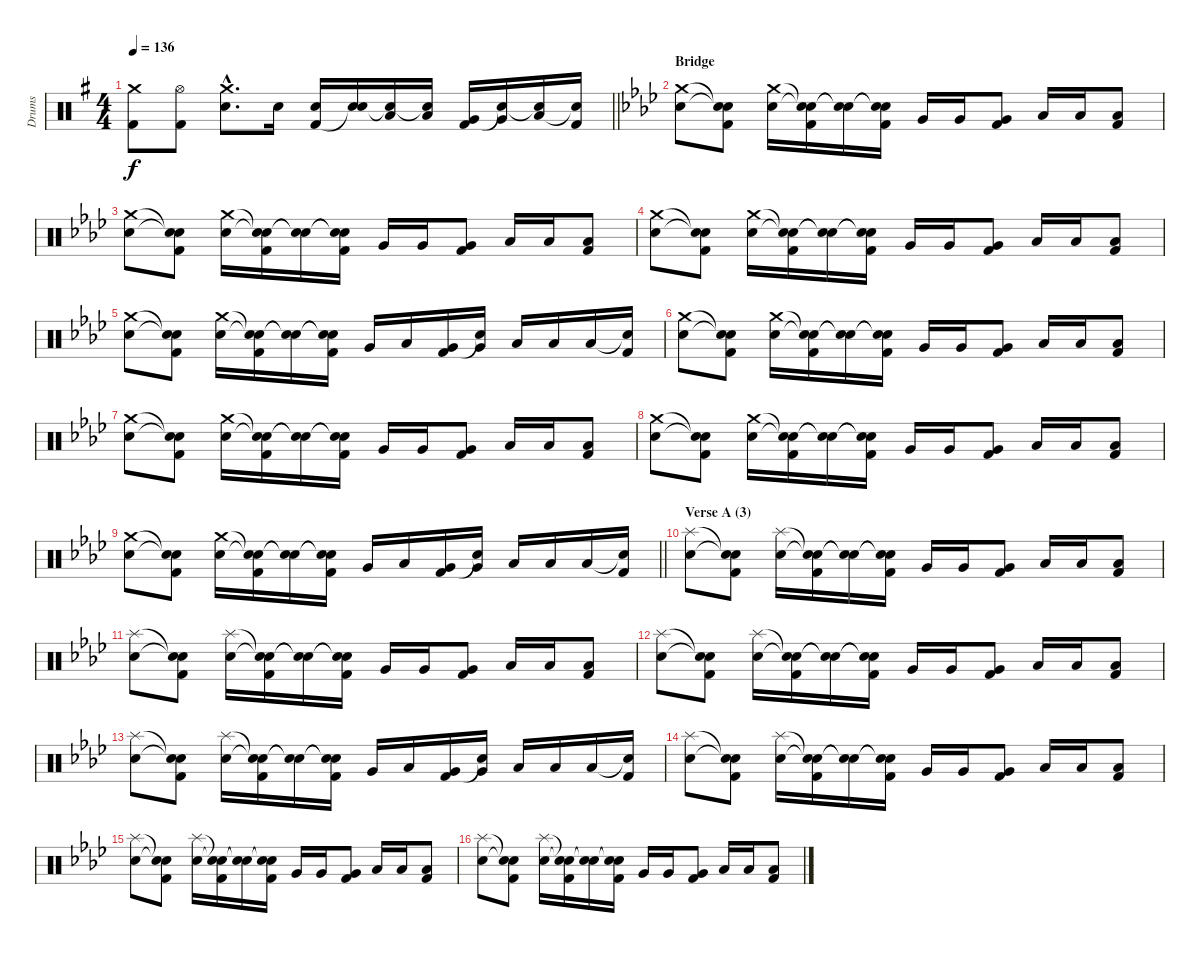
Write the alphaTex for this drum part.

\track ("Drums" "Drums") {instrument percussion}
\staff {score}
\articulation defaults
\ts (4 4)
\tempo 136
\clef neutral
\barLineRight lightlight
\ks g
("Crash medium (hit)" "Kick (hit) 2").8{dy f} ("Hi-Hat (open)" "Kick (hit) 2").8 ("Crash medium (hit)"{hac} "Electric Snare (hit)"{hac}).8{d} "Electric Snare (hit)".16 ("Electric Snare (hit)" "Kick (hit) 2").16 ("Electric Snare (hit)" "Snare (hit)"{t}).16 ("Low Tom (hit)" "Snare (hit)"{t}).16 ("Low Tom (hit)" "Snare (hit)"{t}).16 ("Very Low Tom (hit)" "Kick (hit) 2").16 ("Very Low Tom (hit)" "Snare (hit)"{t}).16 ("Low Floor Tom (hit)" "Snare (hit)"{t}).16 ("Snare (hit)"{t} "Kick (hit) 2").16 |
\section ("" "Bridge")
\ks ab
("Crash medium (hit)" "Electric Snare (hit)").8 ("Snare (hit)"{t} "Snare (hit)"{t} "Kick (hit) 2").8 ("Crash medium (hit)" "Electric Snare (hit)").16 ("Snare (hit)"{t} "Snare (hit)"{t} "Kick (hit) 2").16 ("Snare (hit)"{t} "Snare (hit)"{t}).16 ("Snare (hit)"{t} "Snare (hit)"{t} "Kick (hit) 2").16 "Very Low Tom (hit)".16 "Very Low Tom (hit)".16 ("Very Low Tom (hit)" "Kick (hit) 2").8 "Low Floor Tom (hit)".16 "Low Floor Tom (hit)".16 ("Low Floor Tom (hit)" "Kick (hit) 2").8 |
("Crash medium (hit)" "Electric Snare (hit)").8 ("Snare (hit)"{t} "Snare (hit)"{t} "Kick (hit) 2").8 ("Crash medium (hit)" "Electric Snare (hit)").16 ("Snare (hit)"{t} "Snare (hit)"{t} "Kick (hit) 2").16 ("Snare (hit)"{t} "Snare (hit)"{t}).16 ("Snare (hit)"{t} "Snare (hit)"{t} "Kick (hit) 2").16 "Very Low Tom (hit)".16 "Very Low Tom (hit)".16 ("Very Low Tom (hit)" "Kick (hit) 2").8 "Low Floor Tom (hit)".16 "Low Floor Tom (hit)".16 ("Low Floor Tom (hit)" "Kick (hit) 2").8 |
("Crash medium (hit)" "Electric Snare (hit)").8 ("Snare (hit)"{t} "Snare (hit)"{t} "Kick (hit) 2").8 ("Crash medium (hit)" "Electric Snare (hit)").16 ("Snare (hit)"{t} "Snare (hit)"{t} "Kick (hit) 2").16 ("Snare (hit)"{t} "Snare (hit)"{t}).16 ("Snare (hit)"{t} "Snare (hit)"{t} "Kick (hit) 2").16 "Very Low Tom (hit)".16 "Very Low Tom (hit)".16 ("Very Low Tom (hit)" "Kick (hit) 2").8 "Low Floor Tom (hit)".16 "Low Floor Tom (hit)".16 ("Low Floor Tom (hit)" "Kick (hit) 2").8 |
("Crash medium (hit)" "Electric Snare (hit)").8 ("Snare (hit)"{t} "Snare (hit)"{t} "Kick (hit) 2").8 ("Crash medium (hit)" "Electric Snare (hit)").16 ("Snare (hit)"{t} "Snare (hit)"{t} "Kick (hit) 2").16 ("Snare (hit)"{t} "Snare (hit)"{t}).16 ("Snare (hit)"{t} "Snare (hit)"{t} "Kick (hit) 2").16 "Very Low Tom (hit)".16 "Low Tom (hit)".16 ("Very Low Tom (hit)" "Kick (hit) 2").16 ("Very Low Tom (hit)" "Snare (hit)"{t}).16 "Low Floor Tom (hit)".16 "Low Floor Tom (hit)".16 "Low Floor Tom (hit)".16 ("Snare (hit)"{t} "Kick (hit) 2").16 |
("Crash medium (hit)" "Electric Snare (hit)").8 ("Snare (hit)"{t} "Snare (hit)"{t} "Kick (hit) 2").8 ("Crash medium (hit)" "Electric Snare (hit)").16 ("Snare (hit)"{t} "Snare (hit)"{t} "Kick (hit) 2").16 ("Snare (hit)"{t} "Snare (hit)"{t}).16 ("Snare (hit)"{t} "Snare (hit)"{t} "Kick (hit) 2").16 "Very Low Tom (hit)".16 "Very Low Tom (hit)".16 ("Very Low Tom (hit)" "Kick (hit) 2").8 "Low Floor Tom (hit)".16 "Low Floor Tom (hit)".16 ("Low Floor Tom (hit)" "Kick (hit) 2").8 |
("Crash medium (hit)" "Electric Snare (hit)").8 ("Snare (hit)"{t} "Snare (hit)"{t} "Kick (hit) 2").8 ("Crash medium (hit)" "Electric Snare (hit)").16 ("Snare (hit)"{t} "Snare (hit)"{t} "Kick (hit) 2").16 ("Snare (hit)"{t} "Snare (hit)"{t}).16 ("Snare (hit)"{t} "Snare (hit)"{t} "Kick (hit) 2").16 "Very Low Tom (hit)".16 "Very Low Tom (hit)".16 ("Very Low Tom (hit)" "Kick (hit) 2").8 "Low Floor Tom (hit)".16 "Low Floor Tom (hit)".16 ("Low Floor Tom (hit)" "Kick (hit) 2").8 |
("Crash medium (hit)" "Electric Snare (hit)").8 ("Snare (hit)"{t} "Snare (hit)"{t} "Kick (hit) 2").8 ("Crash medium (hit)" "Electric Snare (hit)").16 ("Snare (hit)"{t} "Snare (hit)"{t} "Kick (hit) 2").16 ("Snare (hit)"{t} "Snare (hit)"{t}).16 ("Snare (hit)"{t} "Snare (hit)"{t} "Kick (hit) 2").16 "Very Low Tom (hit)".16 "Very Low Tom (hit)".16 ("Very Low Tom (hit)" "Kick (hit) 2").8 "Low Floor Tom (hit)".16 "Low Floor Tom (hit)".16 ("Low Floor Tom (hit)" "Kick (hit) 2").8 |
\barLineRight lightlight
("Crash medium (hit)" "Electric Snare (hit)").8 ("Snare (hit)"{t} "Snare (hit)"{t} "Kick (hit) 2").8 ("Crash medium (hit)" "Electric Snare (hit)").16 ("Snare (hit)"{t} "Snare (hit)"{t} "Kick (hit) 2").16 ("Snare (hit)"{t} "Snare (hit)"{t}).16 ("Snare (hit)"{t} "Snare (hit)"{t} "Kick (hit) 2").16 "Very Low Tom (hit)".16 "Low Tom (hit)".16 ("Very Low Tom (hit)" "Kick (hit) 2").16 ("Very Low Tom (hit)" "Snare (hit)"{t}).16 "Low Floor Tom (hit)".16 "Low Floor Tom (hit)".16 "Low Floor Tom (hit)".16 ("Snare (hit)"{t} "Kick (hit) 2").16 |
\section ("" "Verse A (3)")
("Splash (hit)" "Electric Snare (hit)").8 ("Snare (hit)"{t} "Snare (hit)"{t} "Kick (hit) 2").8 ("Splash (hit)" "Electric Snare (hit)").16 ("Snare (hit)"{t} "Snare (hit)"{t} "Kick (hit) 2").16 ("Snare (hit)"{t} "Snare (hit)"{t}).16 ("Snare (hit)"{t} "Snare (hit)"{t} "Kick (hit) 2").16 "Very Low Tom (hit)".16 "Very Low Tom (hit)".16 ("Very Low Tom (hit)" "Kick (hit) 2").8 "Low Floor Tom (hit)".16 "Low Floor Tom (hit)".16 ("Low Floor Tom (hit)" "Kick (hit) 2").8 |
("Splash (hit)" "Electric Snare (hit)").8 ("Snare (hit)"{t} "Snare (hit)"{t} "Kick (hit) 2").8 ("Splash (hit)" "Electric Snare (hit)").16 ("Snare (hit)"{t} "Snare (hit)"{t} "Kick (hit) 2").16 ("Snare (hit)"{t} "Snare (hit)"{t}).16 ("Snare (hit)"{t} "Snare (hit)"{t} "Kick (hit) 2").16 "Very Low Tom (hit)".16 "Very Low Tom (hit)".16 ("Very Low Tom (hit)" "Kick (hit) 2").8 "Low Floor Tom (hit)".16 "Low Floor Tom (hit)".16 ("Low Floor Tom (hit)" "Kick (hit) 2").8 |
("Splash (hit)" "Electric Snare (hit)").8 ("Snare (hit)"{t} "Snare (hit)"{t} "Kick (hit) 2").8 ("Splash (hit)" "Electric Snare (hit)").16 ("Snare (hit)"{t} "Snare (hit)"{t} "Kick (hit) 2").16 ("Snare (hit)"{t} "Snare (hit)"{t}).16 ("Snare (hit)"{t} "Snare (hit)"{t} "Kick (hit) 2").16 "Very Low Tom (hit)".16 "Very Low Tom (hit)".16 ("Very Low Tom (hit)" "Kick (hit) 2").8 "Low Floor Tom (hit)".16 "Low Floor Tom (hit)".16 ("Low Floor Tom (hit)" "Kick (hit) 2").8 |
("Splash (hit)" "Electric Snare (hit)").8 ("Snare (hit)"{t} "Snare (hit)"{t} "Kick (hit) 2").8 ("Splash (hit)" "Electric Snare (hit)").16 ("Snare (hit)"{t} "Snare (hit)"{t} "Kick (hit) 2").16 ("Snare (hit)"{t} "Snare (hit)"{t}).16 ("Snare (hit)"{t} "Snare (hit)"{t} "Kick (hit) 2").16 "Very Low Tom (hit)".16 "Low Tom (hit)".16 ("Very Low Tom (hit)" "Kick (hit) 2").16 ("Very Low Tom (hit)" "Snare (hit)"{t}).16 "Low Floor Tom (hit)".16 "Low Floor Tom (hit)".16 "Low Floor Tom (hit)".16 ("Snare (hit)"{t} "Kick (hit) 2").16 |
("Splash (hit)" "Electric Snare (hit)").8 ("Snare (hit)"{t} "Snare (hit)"{t} "Kick (hit) 2").8 ("Splash (hit)" "Electric Snare (hit)").16 ("Snare (hit)"{t} "Snare (hit)"{t} "Kick (hit) 2").16 ("Snare (hit)"{t} "Snare (hit)"{t}).16 ("Snare (hit)"{t} "Snare (hit)"{t} "Kick (hit) 2").16 "Very Low Tom (hit)".16 "Very Low Tom (hit)".16 ("Very Low Tom (hit)" "Kick (hit) 2").8 "Low Floor Tom (hit)".16 "Low Floor Tom (hit)".16 ("Low Floor Tom (hit)" "Kick (hit) 2").8 |
("Splash (hit)" "Electric Snare (hit)").8 ("Snare (hit)"{t} "Snare (hit)"{t} "Kick (hit) 2").8 ("Splash (hit)" "Electric Snare (hit)").16 ("Snare (hit)"{t} "Snare (hit)"{t} "Kick (hit) 2").16 ("Snare (hit)"{t} "Snare (hit)"{t}).16 ("Snare (hit)"{t} "Snare (hit)"{t} "Kick (hit) 2").16 "Very Low Tom (hit)".16 "Very Low Tom (hit)".16 ("Very Low Tom (hit)" "Kick (hit) 2").8 "Low Floor Tom (hit)".16 "Low Floor Tom (hit)".16 ("Low Floor Tom (hit)" "Kick (hit) 2").8 |
("Splash (hit)" "Electric Snare (hit)").8 ("Snare (hit)"{t} "Snare (hit)"{t} "Kick (hit) 2").8 ("Splash (hit)" "Electric Snare (hit)").16 ("Snare (hit)"{t} "Snare (hit)"{t} "Kick (hit) 2").16 ("Snare (hit)"{t} "Snare (hit)"{t}).16 ("Snare (hit)"{t} "Snare (hit)"{t} "Kick (hit) 2").16 "Very Low Tom (hit)".16 "Very Low Tom (hit)".16 ("Very Low Tom (hit)" "Kick (hit) 2").8 "Low Floor Tom (hit)".16 "Low Floor Tom (hit)".16 ("Low Floor Tom (hit)" "Kick (hit) 2").8
